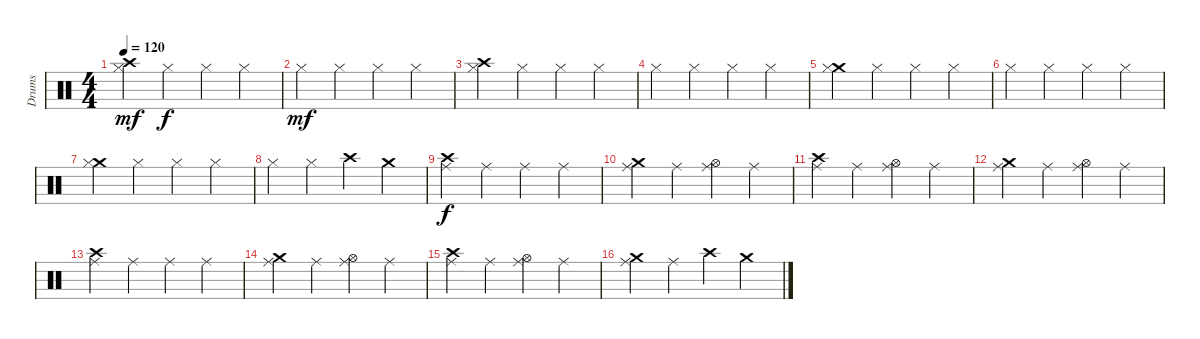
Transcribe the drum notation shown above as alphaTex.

\track ("Drums" "Drums") {instrument percussion}
\staff {score}
\articulation defaults
\ts (4 4)
\tempo 120
\clef neutral
\ks c
("Crash high (hit)" "Hi-Hat (closed)").4{dy mf} "Hi-Hat (closed)".4{dy f} "Hi-Hat (closed)".4 "Hi-Hat (closed)".4 |
"Hi-Hat (closed)".4{dy mf} "Hi-Hat (closed)".4 "Hi-Hat (closed)".4 "Hi-Hat (closed)".4 |
("Crash high (hit)" "Hi-Hat (closed)").4 "Hi-Hat (closed)".4 "Hi-Hat (closed)".4 "Hi-Hat (closed)".4 |
"Hi-Hat (closed)".4 "Hi-Hat (closed)".4 "Hi-Hat (closed)".4 "Hi-Hat (closed)".4 |
("Crash medium (hit)" "Hi-Hat (closed)").4 "Hi-Hat (closed)".4 "Hi-Hat (closed)".4 "Hi-Hat (closed)".4 |
"Hi-Hat (closed)".4 "Hi-Hat (closed)".4 "Hi-Hat (closed)".4 "Hi-Hat (closed)".4 |
("Crash medium (hit)" "Hi-Hat (closed)").4 "Hi-Hat (closed)".4 "Hi-Hat (closed)".4 "Hi-Hat (closed)".4 |
"Hi-Hat (closed)".4 "Hi-Hat (closed)".4 "Crash high (hit)".4 "Crash medium (hit)".4 |
("Crash high (hit)" "Ride (middle)").4{dy f} "Ride (middle)".4 "Ride (middle)".4 "Ride (middle)".4 |
("Crash medium (hit)" "Ride (middle)").4 "Ride (middle)".4 ("Hi-Hat (open)" "Ride (middle)").4 "Ride (middle)".4 |
("Crash high (hit)" "Ride (middle)").4 "Ride (middle)".4 ("Hi-Hat (open)" "Ride (middle)").4 "Ride (middle)".4 |
("Crash medium (hit)" "Ride (middle)").4 "Ride (middle)".4 ("Hi-Hat (open)" "Ride (middle)").4 "Ride (middle)".4 |
("Crash high (hit)" "Ride (middle)").4 "Ride (middle)".4 "Ride (middle)".4 "Ride (middle)".4 |
("Crash medium (hit)" "Ride (middle)").4 "Ride (middle)".4 ("Hi-Hat (open)" "Ride (middle)").4 "Ride (middle)".4 |
("Crash high (hit)" "Ride (middle)").4 "Ride (middle)".4 ("Hi-Hat (open)" "Ride (middle)").4 "Ride (middle)".4 |
("Crash medium (hit)" "Ride (middle)").4 "Ride (middle)".4 "Crash high (hit)".4 "Crash medium (hit)".4
